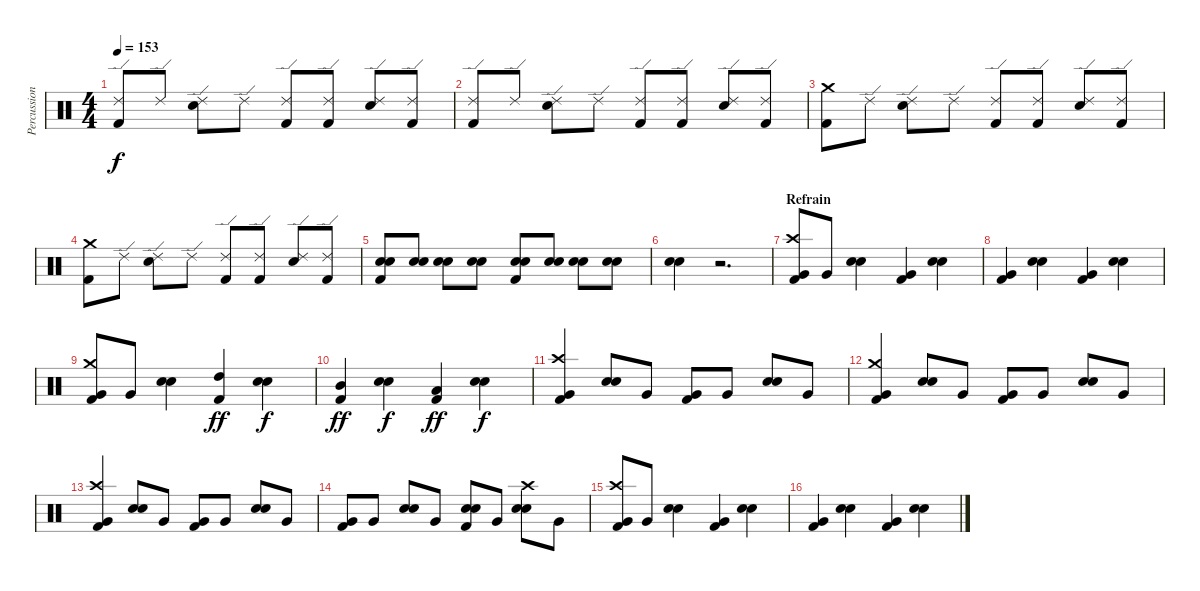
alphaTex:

\track ("Percussion" "Percussion") {instrument percussion}
\staff {score}
\articulation defaults
\ts (4 4)
\tempo 153
\clef neutral
\ks c
("Ride (edge) 2" "Kick (hit) 2").8{dy f} "Ride (edge) 2".8 ("Ride (edge) 2" "Electric Snare (hit)").8 "Ride (edge) 2".8 ("Ride (edge) 2" "Kick (hit) 2").8 ("Ride (edge) 2" "Kick (hit) 2").8 ("Ride (edge) 2" "Electric Snare (hit)").8 ("Ride (edge) 2" "Kick (hit) 2").8 |
("Ride (edge) 2" "Kick (hit) 2").8 "Ride (edge) 2".8 ("Ride (edge) 2" "Electric Snare (hit)").8 "Ride (edge) 2".8 ("Ride (edge) 2" "Kick (hit) 2").8 ("Ride (edge) 2" "Kick (hit) 2").8 ("Ride (edge) 2" "Electric Snare (hit)").8 ("Ride (edge) 2" "Kick (hit) 2").8 |
("Crash medium (hit)" "Kick (hit) 2").8 "Ride (edge) 2".8 ("Ride (edge) 2" "Electric Snare (hit)").8 "Ride (edge) 2".8 ("Ride (edge) 2" "Kick (hit) 2").8 ("Ride (edge) 2" "Kick (hit) 2").8 ("Ride (edge) 2" "Electric Snare (hit)").8 ("Ride (edge) 2" "Kick (hit) 2").8 |
("Crash medium (hit)" "Kick (hit) 2").8 "Ride (edge) 2".8 ("Ride (edge) 2" "Electric Snare (hit)").8 "Ride (edge) 2".8 ("Ride (edge) 2" "Kick (hit) 2").8 ("Ride (edge) 2" "Kick (hit) 2").8 ("Ride (edge) 2" "Electric Snare (hit)").8 ("Ride (edge) 2" "Kick (hit) 2").8 |
("Snare (hit) 2" "Electric Snare (hit)" "Kick (hit) 2").8 ("Snare (hit) 2" "Electric Snare (hit)").8 ("Snare (hit) 2" "Electric Snare (hit)").8 ("Snare (hit) 2" "Electric Snare (hit)").8 ("Snare (hit) 2" "Electric Snare (hit)" "Kick (hit) 2").8 ("Snare (hit) 2" "Electric Snare (hit)").8 ("Snare (hit) 2" "Electric Snare (hit)").8 ("Snare (hit) 2" "Electric Snare (hit)").8 |
("Electric Snare (hit)" "Electric Snare (hit)").4 r.2{d} |
\section ("" "Refrain")
("Crash high (hit)" "Very Low Tom (hit)" "Kick (hit) 2").8 "Very Low Tom (hit)".8 ("Electric Snare (hit)" "Snare (hit) 2").4 ("Very Low Tom (hit)" "Kick (hit) 2").4 ("Electric Snare (hit)" "Snare (hit) 2").4 |
("Very Low Tom (hit)" "Kick (hit) 2").4 ("Electric Snare (hit)" "Snare (hit) 2").4 ("Very Low Tom (hit)" "Kick (hit) 2").4 ("Electric Snare (hit)" "Snare (hit) 2").4 |
("Crash medium (hit)" "Very Low Tom (hit)" "Kick (hit) 2").8 "Very Low Tom (hit)".8 ("Electric Snare (hit)" "Snare (hit) 2").4 ("High Tom (hit)" "Kick (hit) 2").4{dy ff} ("Electric Snare (hit)" "Snare (hit) 2").4{dy f} |
("Mid Tom (hit)" "Kick (hit) 2").4{dy ff} ("Electric Snare (hit)" "Snare (hit) 2").4{dy f} ("Low Tom (hit)" "Kick (hit) 2").4{dy ff} ("Electric Snare (hit)" "Snare (hit) 2").4{dy f} |
("Crash high (hit)" "Very Low Tom (hit)" "Kick (hit) 2").4 ("Electric Snare (hit)" "Snare (hit) 2").8 "Very Low Tom (hit)".8 ("Very Low Tom (hit)" "Kick (hit) 2").8 "Very Low Tom (hit)".8 ("Electric Snare (hit)" "Snare (hit) 2").8 "Very Low Tom (hit)".8 |
("Crash medium (hit)" "Very Low Tom (hit)" "Kick (hit) 2").4 ("Electric Snare (hit)" "Snare (hit) 2").8 "Very Low Tom (hit)".8 ("Very Low Tom (hit)" "Kick (hit) 2").8 "Very Low Tom (hit)".8 ("Electric Snare (hit)" "Snare (hit) 2").8 "Very Low Tom (hit)".8 |
("Crash high (hit)" "Very Low Tom (hit)" "Kick (hit) 2").4 ("Electric Snare (hit)" "Snare (hit) 2").8 "Very Low Tom (hit)".8 ("Very Low Tom (hit)" "Kick (hit) 2").8 "Very Low Tom (hit)".8 ("Electric Snare (hit)" "Snare (hit) 2").8 "Very Low Tom (hit)".8 |
("Very Low Tom (hit)" "Kick (hit) 2").8 "Very Low Tom (hit)".8 ("Electric Snare (hit)" "Snare (hit) 2").8 "Very Low Tom (hit)".8 ("Electric Snare (hit)" "Snare (hit) 2" "Kick (hit) 2").8 "Very Low Tom (hit)".8 ("Crash high (hit)" "Electric Snare (hit)" "Snare (hit) 2").8 "Very Low Tom (hit)".8 |
("Crash high (hit)" "Very Low Tom (hit)" "Kick (hit) 2").8 "Very Low Tom (hit)".8 ("Electric Snare (hit)" "Snare (hit) 2").4 ("Very Low Tom (hit)" "Kick (hit) 2").4 ("Electric Snare (hit)" "Snare (hit) 2").4 |
("Very Low Tom (hit)" "Kick (hit) 2").4 ("Electric Snare (hit)" "Snare (hit) 2").4 ("Very Low Tom (hit)" "Kick (hit) 2").4 ("Electric Snare (hit)" "Snare (hit) 2").4
